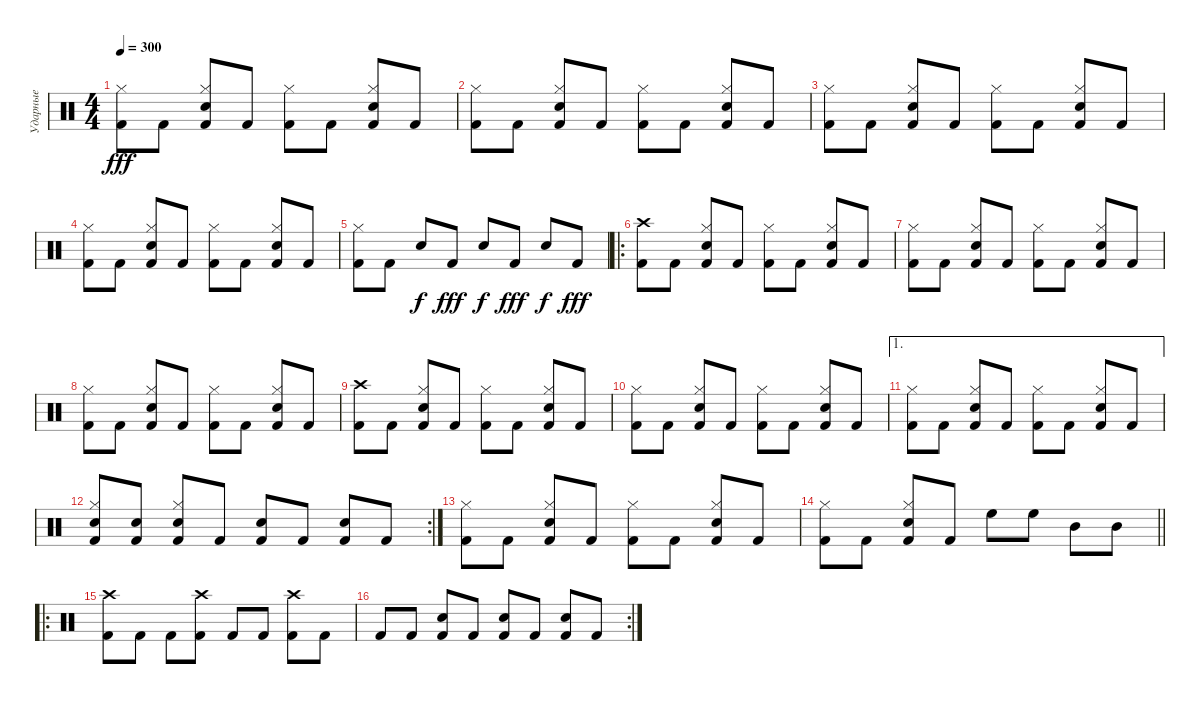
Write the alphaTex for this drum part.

\track ("Ударные" "Ударные") {instrument percussion}
\staff {score}
\articulation defaults
\ts (4 4)
\tempo 300
\clef neutral
\ks c
("Kick (hit) 2" "Hi-Hat (closed)").8{dy fff} "Kick (hit) 2".8 ("Kick (hit) 2" "Snare (hit) 2" "Hi-Hat (closed)").8 "Kick (hit) 2".8 ("Kick (hit) 2" "Hi-Hat (closed)").8 "Kick (hit) 2".8 ("Kick (hit) 2" "Snare (hit) 2" "Hi-Hat (closed)").8 "Kick (hit) 2".8 |
("Kick (hit) 2" "Hi-Hat (closed)").8 "Kick (hit) 2".8 ("Kick (hit) 2" "Snare (hit) 2" "Hi-Hat (closed)").8 "Kick (hit) 2".8 ("Kick (hit) 2" "Hi-Hat (closed)").8 "Kick (hit) 2".8 ("Kick (hit) 2" "Snare (hit) 2" "Hi-Hat (closed)").8 "Kick (hit) 2".8 |
("Kick (hit) 2" "Hi-Hat (closed)").8 "Kick (hit) 2".8 ("Kick (hit) 2" "Snare (hit) 2" "Hi-Hat (closed)").8 "Kick (hit) 2".8 ("Kick (hit) 2" "Hi-Hat (closed)").8 "Kick (hit) 2".8 ("Kick (hit) 2" "Snare (hit) 2" "Hi-Hat (closed)").8 "Kick (hit) 2".8 |
("Kick (hit) 2" "Hi-Hat (closed)").8 "Kick (hit) 2".8 ("Kick (hit) 2" "Snare (hit) 2" "Hi-Hat (closed)").8 "Kick (hit) 2".8 ("Kick (hit) 2" "Hi-Hat (closed)").8 "Kick (hit) 2".8 ("Kick (hit) 2" "Snare (hit) 2" "Hi-Hat (closed)").8 "Kick (hit) 2".8 |
("Kick (hit) 2" "Hi-Hat (closed)").8 "Kick (hit) 2".8 "Snare (hit) 2".8{dy f} "Kick (hit) 2".8{dy fff} "Snare (hit) 2".8{dy f} "Kick (hit) 2".8{dy fff} "Snare (hit) 2".8{dy f} "Kick (hit) 2".8{dy fff} |
\ro
("Kick (hit) 2" "Crash high (hit)").8 "Kick (hit) 2".8 ("Kick (hit) 2" "Snare (hit) 2" "Hi-Hat (closed)").8 "Kick (hit) 2".8 ("Kick (hit) 2" "Hi-Hat (closed)").8 "Kick (hit) 2".8 ("Kick (hit) 2" "Snare (hit) 2" "Hi-Hat (closed)").8 "Kick (hit) 2".8 |
("Kick (hit) 2" "Hi-Hat (closed)").8 "Kick (hit) 2".8 ("Kick (hit) 2" "Snare (hit) 2" "Hi-Hat (closed)").8 "Kick (hit) 2".8 ("Kick (hit) 2" "Hi-Hat (closed)").8 "Kick (hit) 2".8 ("Kick (hit) 2" "Snare (hit) 2" "Hi-Hat (closed)").8 "Kick (hit) 2".8 |
("Kick (hit) 2" "Hi-Hat (closed)").8 "Kick (hit) 2".8 ("Kick (hit) 2" "Snare (hit) 2" "Hi-Hat (closed)").8 "Kick (hit) 2".8 ("Kick (hit) 2" "Hi-Hat (closed)").8 "Kick (hit) 2".8 ("Kick (hit) 2" "Snare (hit) 2" "Hi-Hat (closed)").8 "Kick (hit) 2".8 |
("Kick (hit) 2" "Crash high (hit)").8 "Kick (hit) 2".8 ("Kick (hit) 2" "Snare (hit) 2" "Hi-Hat (closed)").8 "Kick (hit) 2".8 ("Kick (hit) 2" "Hi-Hat (closed)").8 "Kick (hit) 2".8 ("Kick (hit) 2" "Snare (hit) 2" "Hi-Hat (closed)").8 "Kick (hit) 2".8 |
("Kick (hit) 2" "Hi-Hat (closed)").8 "Kick (hit) 2".8 ("Kick (hit) 2" "Snare (hit) 2" "Hi-Hat (closed)").8 "Kick (hit) 2".8 ("Kick (hit) 2" "Hi-Hat (closed)").8 "Kick (hit) 2".8 ("Kick (hit) 2" "Snare (hit) 2" "Hi-Hat (closed)").8 "Kick (hit) 2".8 |
\ae 1
("Kick (hit) 2" "Hi-Hat (closed)").8 "Kick (hit) 2".8 ("Kick (hit) 2" "Snare (hit) 2" "Hi-Hat (closed)").8 "Kick (hit) 2".8 ("Kick (hit) 2" "Hi-Hat (closed)").8 "Kick (hit) 2".8 ("Kick (hit) 2" "Snare (hit) 2" "Hi-Hat (closed)").8 "Kick (hit) 2".8 |
\rc 2
("Kick (hit) 2" "Electric Snare (hit)" "Hi-Hat (closed)").8 ("Kick (hit) 2" "Electric Snare (hit)").8 ("Kick (hit) 2" "Snare (hit) 2" "Hi-Hat (closed)").8 "Kick (hit) 2".8 ("Kick (hit) 2" "Snare (hit) 2").8 "Kick (hit) 2".8 ("Kick (hit) 2" "Snare (hit) 2").8 "Kick (hit) 2".8 |
("Kick (hit) 2" "Hi-Hat (closed)").8 "Kick (hit) 2".8 ("Kick (hit) 2" "Snare (hit) 2" "Hi-Hat (closed)").8 "Kick (hit) 2".8 ("Kick (hit) 2" "Hi-Hat (closed)").8 "Kick (hit) 2".8 ("Kick (hit) 2" "Snare (hit) 2" "Hi-Hat (closed)").8 "Kick (hit) 2".8 |
\barLineRight lightlight
("Kick (hit) 2" "Hi-Hat (closed)").8 "Kick (hit) 2".8 ("Kick (hit) 2" "Snare (hit) 2" "Hi-Hat (closed)").8 "Kick (hit) 2".8 "High Floor Tom (hit)".8 "High Floor Tom (hit)".8 "Mid Tom (hit)".8 "Mid Tom (hit)".8 |
\ro
("Kick (hit) 2" "Crash high (hit)").8 "Kick (hit) 2".8 "Kick (hit) 2".8 ("Kick (hit) 2" "Crash high (hit)").8 "Kick (hit) 2".8 "Kick (hit) 2".8 ("Kick (hit) 2" "Crash high (hit)").8 "Kick (hit) 2".8 |
\rc 2 "Kick (hit) 2".8 "Kick (hit) 2".8
("Kick (hit) 2" "Snare (hit) 2").8 "Kick (hit) 2".8 ("Kick (hit) 2" "Snare (hit) 2").8 "Kick (hit) 2".8 ("Kick (hit) 2" "Snare (hit) 2").8 "Kick (hit) 2".8
